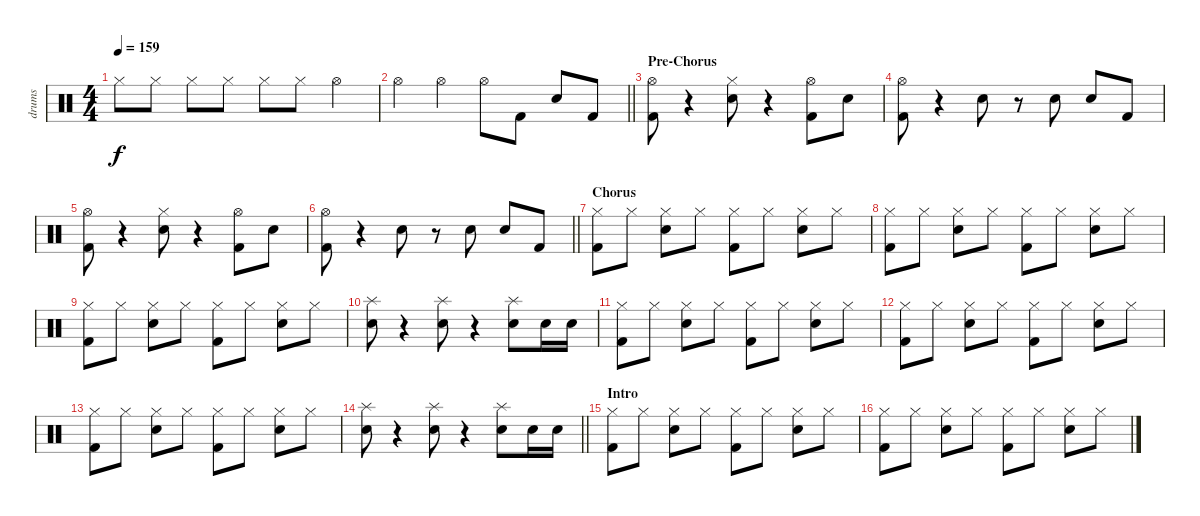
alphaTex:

\track ("drums" "drums") {instrument percussion}
\staff {score}
\articulation defaults
\ts (4 4)
\tempo 159
\clef neutral
\ks c "Hi-Hat (closed)".8{dy f} "Hi-Hat (closed)".8 "Hi-Hat (closed)".8 "Hi-Hat (closed)".8 "Hi-Hat (closed)".8 "Hi-Hat (closed)".8 "Hi-Hat (open)".4
|
\barLineRight lightlight "Hi-Hat (open)".4 "Hi-Hat (open)".4 "Hi-Hat (open)".8 "Kick (hit) 2".8 "Electric Snare (hit)".8 "Kick (hit) 2".8
|
\section ("" "Pre-Chorus")
("Hi-Hat (open)" "Kick (hit) 2").8 r.4 ("Hi-Hat (closed)" "Electric Snare (hit)").8 r.4 ("Hi-Hat (open)" "Kick (hit) 2").8 "Electric Snare (hit)".8 |
("Hi-Hat (open)" "Kick (hit) 2").8 r.4 "Electric Snare (hit)".8 r.8 "Electric Snare (hit)".8 "Electric Snare (hit)".8 "Kick (hit) 2".8 |
("Hi-Hat (open)" "Kick (hit) 2").8 r.4 ("Hi-Hat (closed)" "Electric Snare (hit)").8 r.4 ("Hi-Hat (open)" "Kick (hit) 2").8 "Electric Snare (hit)".8 |
\barLineRight lightlight
("Hi-Hat (open)" "Kick (hit) 2").8 r.4 "Electric Snare (hit)".8 r.8 "Electric Snare (hit)".8 "Electric Snare (hit)".8 "Kick (hit) 2".8 |
\section ("" "Chorus")
("Hi-Hat (closed)" "Kick (hit) 2").8 "Hi-Hat (closed)".8 ("Hi-Hat (closed)" "Electric Snare (hit)").8 "Hi-Hat (closed)".8 ("Hi-Hat (closed)" "Kick (hit) 2").8 "Hi-Hat (closed)".8 ("Hi-Hat (closed)" "Electric Snare (hit)").8 "Hi-Hat (closed)".8 |
("Hi-Hat (closed)" "Kick (hit) 2").8 "Hi-Hat (closed)".8 ("Hi-Hat (closed)" "Electric Snare (hit)").8 "Hi-Hat (closed)".8 ("Hi-Hat (closed)" "Kick (hit) 2").8 "Hi-Hat (closed)".8 ("Hi-Hat (closed)" "Electric Snare (hit)").8 "Hi-Hat (closed)".8 |
("Hi-Hat (closed)" "Kick (hit) 2").8 "Hi-Hat (closed)".8 ("Hi-Hat (closed)" "Electric Snare (hit)").8 "Hi-Hat (closed)".8 ("Hi-Hat (closed)" "Kick (hit) 2").8 "Hi-Hat (closed)".8 ("Hi-Hat (closed)" "Electric Snare (hit)").8 "Hi-Hat (closed)".8 |
("Splash (hit)" "Electric Snare (hit)").8 r.4 ("Splash (hit)" "Electric Snare (hit)").8 r.4 ("Splash (hit)" "Electric Snare (hit)").8 "Electric Snare (hit)".16 "Electric Snare (hit)".16 |
("Hi-Hat (closed)" "Kick (hit) 2").8 "Hi-Hat (closed)".8 ("Hi-Hat (closed)" "Electric Snare (hit)").8 "Hi-Hat (closed)".8 ("Hi-Hat (closed)" "Kick (hit) 2").8 "Hi-Hat (closed)".8 ("Hi-Hat (closed)" "Electric Snare (hit)").8 "Hi-Hat (closed)".8 |
("Hi-Hat (closed)" "Kick (hit) 2").8 "Hi-Hat (closed)".8 ("Hi-Hat (closed)" "Electric Snare (hit)").8 "Hi-Hat (closed)".8 ("Hi-Hat (closed)" "Kick (hit) 2").8 "Hi-Hat (closed)".8 ("Hi-Hat (closed)" "Electric Snare (hit)").8 "Hi-Hat (closed)".8 |
("Hi-Hat (closed)" "Kick (hit) 2").8 "Hi-Hat (closed)".8 ("Hi-Hat (closed)" "Electric Snare (hit)").8 "Hi-Hat (closed)".8 ("Hi-Hat (closed)" "Kick (hit) 2").8 "Hi-Hat (closed)".8 ("Hi-Hat (closed)" "Electric Snare (hit)").8 "Hi-Hat (closed)".8 |
\barLineRight lightlight
("Splash (hit)" "Electric Snare (hit)").8 r.4 ("Splash (hit)" "Electric Snare (hit)").8 r.4 ("Splash (hit)" "Electric Snare (hit)").8 "Electric Snare (hit)".16 "Electric Snare (hit)".16 |
\section ("" "Intro")
("Hi-Hat (closed)" "Kick (hit) 2").8 "Hi-Hat (closed)".8 ("Hi-Hat (closed)" "Electric Snare (hit)").8 "Hi-Hat (closed)".8 ("Hi-Hat (closed)" "Kick (hit) 2").8 "Hi-Hat (closed)".8 ("Hi-Hat (closed)" "Electric Snare (hit)").8 "Hi-Hat (closed)".8 |
("Hi-Hat (closed)" "Kick (hit) 2").8 "Hi-Hat (closed)".8 ("Hi-Hat (closed)" "Electric Snare (hit)").8 "Hi-Hat (closed)".8 ("Hi-Hat (closed)" "Kick (hit) 2").8 "Hi-Hat (closed)".8 ("Hi-Hat (closed)" "Electric Snare (hit)").8 "Hi-Hat (closed)".8
